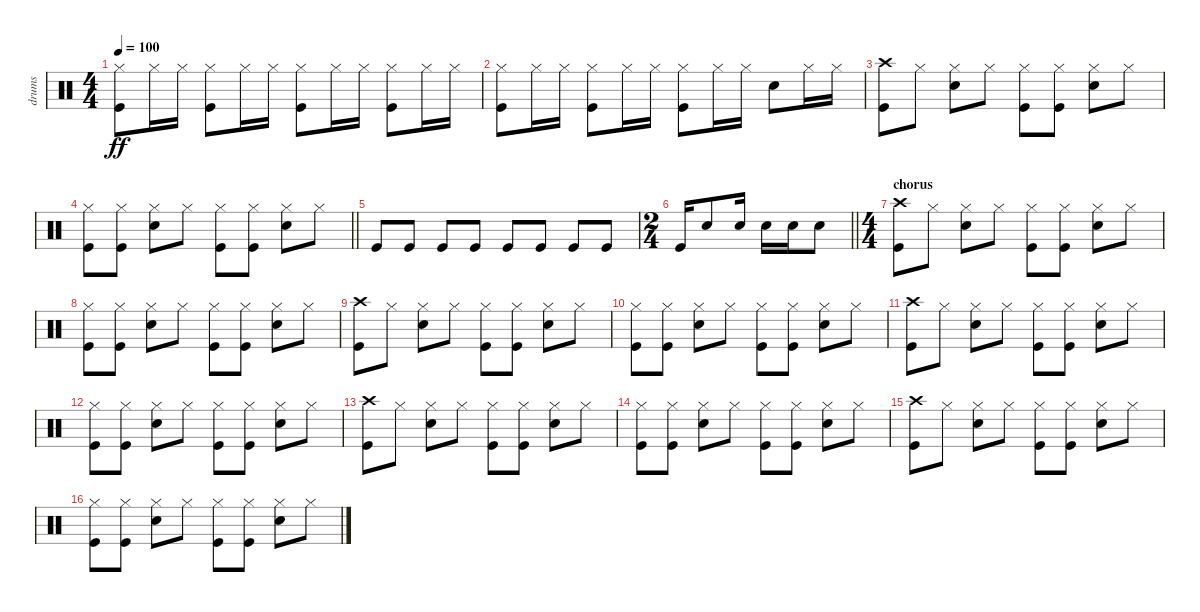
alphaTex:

\track ("drums" "drums") {instrument percussion}
\staff {score}
\articulation defaults
\ts (4 4)
\tempo 100
\clef neutral
\ks c
("Hi-Hat (closed)" "Kick (hit)").8{dy ff} "Hi-Hat (closed)".16 "Hi-Hat (closed)".16 ("Hi-Hat (closed)" "Kick (hit)").8 "Hi-Hat (closed)".16 "Hi-Hat (closed)".16 ("Hi-Hat (closed)" "Kick (hit)").8 "Hi-Hat (closed)".16 "Hi-Hat (closed)".16 ("Hi-Hat (closed)" "Kick (hit)").8 "Hi-Hat (closed)".16 "Hi-Hat (closed)".16 |
("Hi-Hat (closed)" "Kick (hit)").8 "Hi-Hat (closed)".16 "Hi-Hat (closed)".16 ("Hi-Hat (closed)" "Kick (hit)").8 "Hi-Hat (closed)".16 "Hi-Hat (closed)".16 ("Hi-Hat (closed)" "Kick (hit)").8 "Hi-Hat (closed)".16 "Hi-Hat (closed)".16 "Electric Snare (hit)".8 "Hi-Hat (closed)".16 "Hi-Hat (closed)".16 |
("Crash high (hit)" "Kick (hit)").8 "Hi-Hat (closed)".8 ("Hi-Hat (closed)" "Electric Snare (hit)").8 "Hi-Hat (closed)".8 ("Hi-Hat (closed)" "Kick (hit)").8 ("Hi-Hat (closed)" "Kick (hit)").8 ("Hi-Hat (closed)" "Electric Snare (hit)").8 "Hi-Hat (closed)".8 |
\barLineRight lightlight
("Hi-Hat (closed)" "Kick (hit)").8 ("Hi-Hat (closed)" "Kick (hit)").8 ("Hi-Hat (closed)" "Electric Snare (hit)").8 "Hi-Hat (closed)".8 ("Hi-Hat (closed)" "Kick (hit)").8 ("Hi-Hat (closed)" "Kick (hit)").8 ("Hi-Hat (closed)" "Electric Snare (hit)").8 "Hi-Hat (closed)".8 |
"Kick (hit)".8 "Kick (hit)".8 "Kick (hit)".8 "Kick (hit)".8 "Kick (hit)".8 "Kick (hit)".8 "Kick (hit)".8 "Kick (hit)".8 |
\ts (2 4)
\barLineRight lightlight "Kick (hit)".16 "Electric Snare (hit)".8 "Electric Snare (hit)".16 "Electric Snare (hit)".16 "Electric Snare (hit)".16 "Electric Snare (hit)".8
|
\ts (4 4)
\section ("" "chorus")
("Crash high (hit)" "Kick (hit)").8 "Hi-Hat (closed)".8 ("Hi-Hat (closed)" "Electric Snare (hit)").8 "Hi-Hat (closed)".8 ("Hi-Hat (closed)" "Kick (hit)").8 ("Hi-Hat (closed)" "Kick (hit)").8 ("Hi-Hat (closed)" "Electric Snare (hit)").8 "Hi-Hat (closed)".8 |
("Hi-Hat (closed)" "Kick (hit)").8 ("Hi-Hat (closed)" "Kick (hit)").8 ("Hi-Hat (closed)" "Electric Snare (hit)").8 "Hi-Hat (closed)".8 ("Hi-Hat (closed)" "Kick (hit)").8 ("Hi-Hat (closed)" "Kick (hit)").8 ("Hi-Hat (closed)" "Electric Snare (hit)").8 "Hi-Hat (closed)".8 |
("Crash high (hit)" "Kick (hit)").8 "Hi-Hat (closed)".8 ("Hi-Hat (closed)" "Electric Snare (hit)").8 "Hi-Hat (closed)".8 ("Hi-Hat (closed)" "Kick (hit)").8 ("Hi-Hat (closed)" "Kick (hit)").8 ("Hi-Hat (closed)" "Electric Snare (hit)").8 "Hi-Hat (closed)".8 |
("Hi-Hat (closed)" "Kick (hit)").8 ("Hi-Hat (closed)" "Kick (hit)").8 ("Hi-Hat (closed)" "Electric Snare (hit)").8 "Hi-Hat (closed)".8 ("Hi-Hat (closed)" "Kick (hit)").8 ("Hi-Hat (closed)" "Kick (hit)").8 ("Hi-Hat (closed)" "Electric Snare (hit)").8 "Hi-Hat (closed)".8 |
("Crash high (hit)" "Kick (hit)").8 "Hi-Hat (closed)".8 ("Hi-Hat (closed)" "Electric Snare (hit)").8 "Hi-Hat (closed)".8 ("Hi-Hat (closed)" "Kick (hit)").8 ("Hi-Hat (closed)" "Kick (hit)").8 ("Hi-Hat (closed)" "Electric Snare (hit)").8 "Hi-Hat (closed)".8 |
("Hi-Hat (closed)" "Kick (hit)").8 ("Hi-Hat (closed)" "Kick (hit)").8 ("Hi-Hat (closed)" "Electric Snare (hit)").8 "Hi-Hat (closed)".8 ("Hi-Hat (closed)" "Kick (hit)").8 ("Hi-Hat (closed)" "Kick (hit)").8 ("Hi-Hat (closed)" "Electric Snare (hit)").8 "Hi-Hat (closed)".8 |
("Crash high (hit)" "Kick (hit)").8 "Hi-Hat (closed)".8 ("Hi-Hat (closed)" "Electric Snare (hit)").8 "Hi-Hat (closed)".8 ("Hi-Hat (closed)" "Kick (hit)").8 ("Hi-Hat (closed)" "Kick (hit)").8 ("Hi-Hat (closed)" "Electric Snare (hit)").8 "Hi-Hat (closed)".8 |
("Hi-Hat (closed)" "Kick (hit)").8 ("Hi-Hat (closed)" "Kick (hit)").8 ("Hi-Hat (closed)" "Electric Snare (hit)").8 "Hi-Hat (closed)".8 ("Hi-Hat (closed)" "Kick (hit)").8 ("Hi-Hat (closed)" "Kick (hit)").8 ("Hi-Hat (closed)" "Electric Snare (hit)").8 "Hi-Hat (closed)".8 |
("Crash high (hit)" "Kick (hit)").8 "Hi-Hat (closed)".8 ("Hi-Hat (closed)" "Electric Snare (hit)").8 "Hi-Hat (closed)".8 ("Hi-Hat (closed)" "Kick (hit)").8 ("Hi-Hat (closed)" "Kick (hit)").8 ("Hi-Hat (closed)" "Electric Snare (hit)").8 "Hi-Hat (closed)".8 |
("Hi-Hat (closed)" "Kick (hit)").8 ("Hi-Hat (closed)" "Kick (hit)").8 ("Hi-Hat (closed)" "Electric Snare (hit)").8 "Hi-Hat (closed)".8 ("Hi-Hat (closed)" "Kick (hit)").8 ("Hi-Hat (closed)" "Kick (hit)").8 ("Hi-Hat (closed)" "Electric Snare (hit)").8 "Hi-Hat (closed)".8
